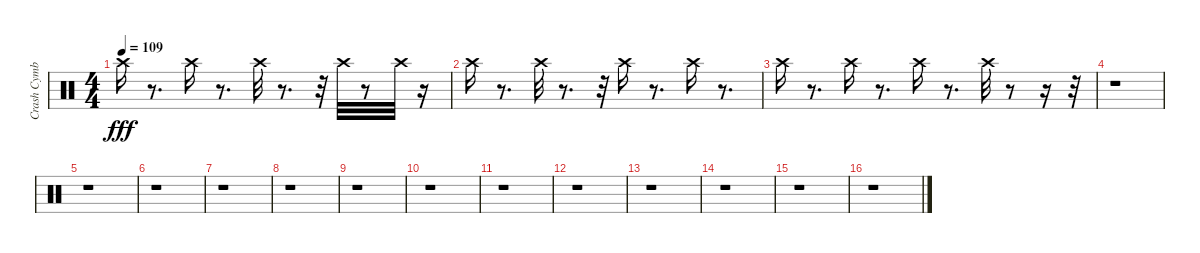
\track ("Crash Cymbal    " "Crash Cymb") {instrument percussion}
\staff {score}
\articulation defaults
\ts (4 4)
\tempo 109
\clef neutral
\ks c "Crash high (hit)".16{dy fff}
r.8{d} "Crash high (hit)".16 r.8{d} "Crash high (hit)".32 r.8{d} r.32 "Crash high (hit)".32 r.8 "Crash high (hit)".32 r.16 |
"Crash high (hit)".16 r.8{d} "Crash high (hit)".32 r.8{d} r.32 "Crash high (hit)".16 r.8{d} "Crash high (hit)".16 r.8{d} |
"Crash high (hit)".16 r.8{d} "Crash high (hit)".16 r.8{d} "Crash high (hit)".16 r.8{d} "Crash high (hit)".32 r.8 r.16 r.32 |
r.1 |
r.1 |
r.1 |
r.1 |
r.1 |
r.1 |
r.1 |
r.1 |
r.1 |
r.1 |
r.1 |
r.1 |
r.1
